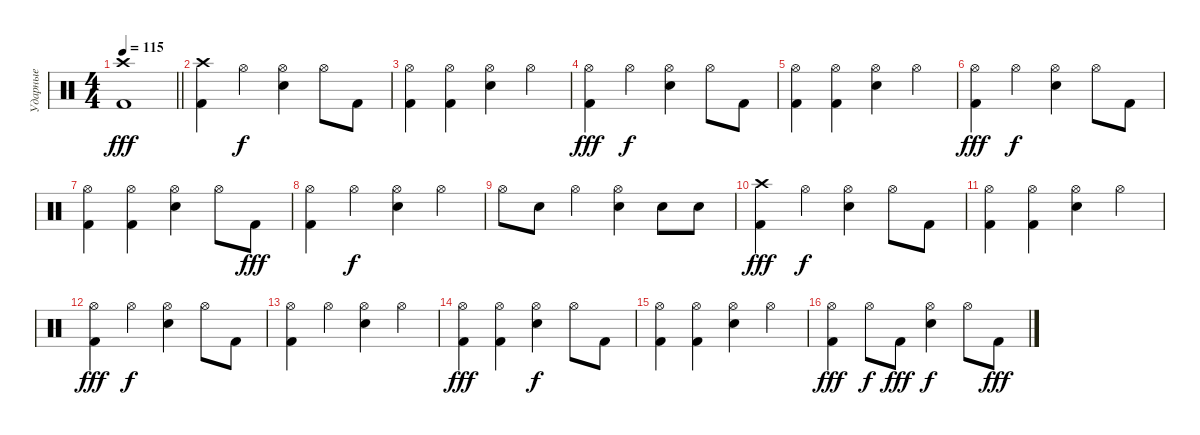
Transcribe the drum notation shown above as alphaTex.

\track ("Ударные" "Ударные") {instrument percussion}
\staff {score}
\articulation defaults
\ts (4 4)
\tempo 115
\clef neutral
\barLineRight lightlight
\ks c
("Kick (hit) 2" "Crash high (hit)").1{dy fff} |
("Kick (hit) 2" "Crash high (hit)").4 "Hi-Hat (open)".4{dy f} ("Snare (hit) 2" "Hi-Hat (open)").4 "Hi-Hat (open)".8 "Kick (hit) 2".8 |
("Kick (hit) 2" "Hi-Hat (open)").4 ("Kick (hit) 2" "Hi-Hat (open)").4 ("Snare (hit) 2" "Hi-Hat (open)").4 "Hi-Hat (open)".4 |
("Kick (hit) 2" "Hi-Hat (open)").4{dy fff} "Hi-Hat (open)".4{dy f} ("Snare (hit) 2" "Hi-Hat (open)").4 "Hi-Hat (open)".8 "Kick (hit) 2".8 |
("Kick (hit) 2" "Hi-Hat (open)").4 ("Kick (hit) 2" "Hi-Hat (open)").4 ("Snare (hit) 2" "Hi-Hat (open)").4 "Hi-Hat (open)".4 |
("Kick (hit) 2" "Hi-Hat (open)").4{dy fff} "Hi-Hat (open)".4{dy f} ("Snare (hit) 2" "Hi-Hat (open)").4 "Hi-Hat (open)".8 "Kick (hit) 2".8 |
("Kick (hit) 2" "Hi-Hat (open)").4 ("Kick (hit) 2" "Hi-Hat (open)").4 ("Snare (hit) 2" "Hi-Hat (open)").4 "Hi-Hat (open)".8 "Kick (hit) 2".8{dy fff} |
("Kick (hit) 2" "Hi-Hat (open)").4 "Hi-Hat (open)".4{dy f} ("Snare (hit) 2" "Hi-Hat (open)").4 "Hi-Hat (open)".4 |
"Hi-Hat (open)".8 "Snare (hit) 2".8 "Hi-Hat (open)".4 ("Snare (hit) 2" "Hi-Hat (open)").4 "Snare (hit) 2".8 "Snare (hit) 2".8 |
("Kick (hit) 2" "Crash high (hit)").4{dy fff} "Hi-Hat (open)".4{dy f} ("Snare (hit) 2" "Hi-Hat (open)").4 "Hi-Hat (open)".8 "Kick (hit) 2".8 |
("Kick (hit) 2" "Hi-Hat (open)").4 ("Kick (hit) 2" "Hi-Hat (open)").4 ("Snare (hit) 2" "Hi-Hat (open)").4 "Hi-Hat (open)".4 |
("Kick (hit) 2" "Hi-Hat (open)").4{dy fff} "Hi-Hat (open)".4{dy f} ("Snare (hit) 2" "Hi-Hat (open)").4 "Hi-Hat (open)".8 "Kick (hit) 2".8 |
("Kick (hit) 2" "Hi-Hat (open)").4 "Hi-Hat (open)".4 ("Snare (hit) 2" "Hi-Hat (open)").4 "Hi-Hat (open)".4 |
("Kick (hit) 2" "Hi-Hat (open)").4{dy fff} ("Kick (hit) 2" "Hi-Hat (open)").4 ("Snare (hit) 2" "Hi-Hat (open)").4{dy f} "Hi-Hat (open)".8 "Kick (hit) 2".8 |
("Kick (hit) 2" "Hi-Hat (open)").4 ("Kick (hit) 2" "Hi-Hat (open)").4 ("Snare (hit) 2" "Hi-Hat (open)").4 "Hi-Hat (open)".4 |
("Kick (hit) 2" "Hi-Hat (open)").4{dy fff} "Hi-Hat (open)".8{dy f} "Kick (hit) 2".8{dy fff} ("Snare (hit) 2" "Hi-Hat (open)").4{dy f} "Hi-Hat (open)".8 "Kick (hit) 2".8{dy fff}
